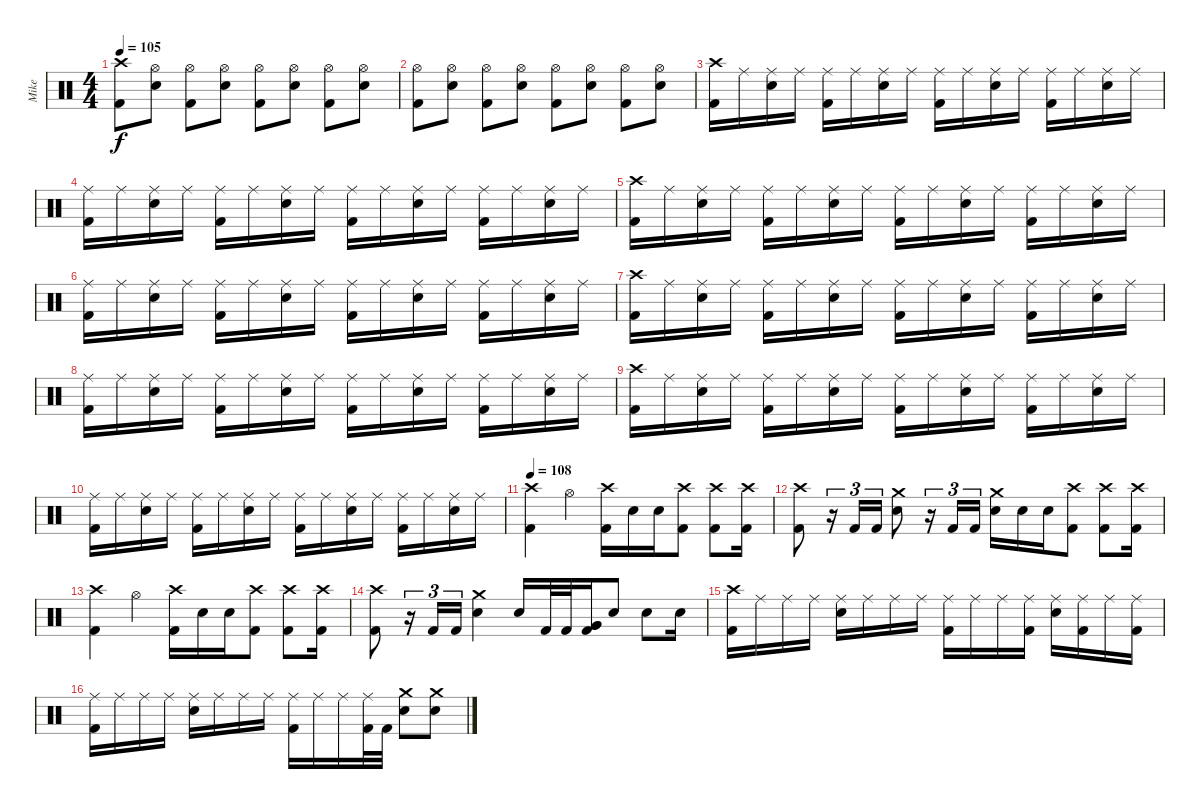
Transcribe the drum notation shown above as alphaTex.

\track ("Mike" "Mike") {instrument percussion}
\staff {score}
\articulation defaults
\ts (4 4)
\tempo 105
\clef neutral
\ks c
("Crash high (hit)" "Kick (hit) 2").8{dy f} ("Hi-Hat (open)" "Snare (hit) 2").8 ("Hi-Hat (open)" "Kick (hit) 2").8 ("Hi-Hat (open)" "Snare (hit) 2").8 ("Hi-Hat (open)" "Kick (hit) 2").8 ("Hi-Hat (open)" "Snare (hit) 2").8 ("Hi-Hat (open)" "Kick (hit) 2").8 ("Hi-Hat (open)" "Snare (hit) 2").8 |
("Hi-Hat (open)" "Kick (hit) 2").8 ("Hi-Hat (open)" "Snare (hit) 2").8 ("Hi-Hat (open)" "Kick (hit) 2").8 ("Hi-Hat (open)" "Snare (hit) 2").8 ("Hi-Hat (open)" "Kick (hit) 2").8 ("Hi-Hat (open)" "Snare (hit) 2").8 ("Hi-Hat (open)" "Kick (hit) 2").8 ("Hi-Hat (open)" "Snare (hit) 2").8 |
("Crash high (hit)" "Kick (hit) 2").16 "Ride (middle)".16 ("Ride (middle)" "Snare (hit) 2").16 "Ride (middle)".16 ("Ride (middle)" "Kick (hit) 2").16 "Ride (middle)".16 ("Ride (middle)" "Snare (hit) 2").16 "Ride (middle)".16 ("Ride (middle)" "Kick (hit) 2").16 "Ride (middle)".16 ("Ride (middle)" "Snare (hit) 2").16 "Ride (middle)".16 ("Ride (middle)" "Kick (hit) 2").16 "Ride (middle)".16 ("Ride (middle)" "Snare (hit) 2").16 "Ride (middle)".16 |
("Ride (middle)" "Kick (hit) 2").16 "Ride (middle)".16 ("Ride (middle)" "Snare (hit) 2").16 "Ride (middle)".16 ("Ride (middle)" "Kick (hit) 2").16 "Ride (middle)".16 ("Ride (middle)" "Snare (hit) 2").16 "Ride (middle)".16 ("Ride (middle)" "Kick (hit) 2").16 "Ride (middle)".16 ("Ride (middle)" "Snare (hit) 2").16 "Ride (middle)".16 ("Ride (middle)" "Kick (hit) 2").16 "Ride (middle)".16 ("Ride (middle)" "Snare (hit) 2").16 "Ride (middle)".16 |
("Crash high (hit)" "Kick (hit) 2").16 "Ride (middle)".16 ("Ride (middle)" "Snare (hit) 2").16 "Ride (middle)".16 ("Ride (middle)" "Kick (hit) 2").16 "Ride (middle)".16 ("Ride (middle)" "Snare (hit) 2").16 "Ride (middle)".16 ("Ride (middle)" "Kick (hit) 2").16 "Ride (middle)".16 ("Ride (middle)" "Snare (hit) 2").16 "Ride (middle)".16 ("Ride (middle)" "Kick (hit) 2").16 "Ride (middle)".16 ("Ride (middle)" "Snare (hit) 2").16 "Ride (middle)".16 |
("Ride (middle)" "Kick (hit) 2").16 "Ride (middle)".16 ("Ride (middle)" "Snare (hit) 2").16 "Ride (middle)".16 ("Ride (middle)" "Kick (hit) 2").16 "Ride (middle)".16 ("Ride (middle)" "Snare (hit) 2").16 "Ride (middle)".16 ("Ride (middle)" "Kick (hit) 2").16 "Ride (middle)".16 ("Ride (middle)" "Snare (hit) 2").16 "Ride (middle)".16 ("Ride (middle)" "Kick (hit) 2").16 "Ride (middle)".16 ("Ride (middle)" "Snare (hit) 2").16 "Ride (middle)".16 |
("Crash high (hit)" "Kick (hit) 2").16 "Ride (middle)".16 ("Ride (middle)" "Snare (hit) 2").16 "Ride (middle)".16 ("Ride (middle)" "Kick (hit) 2").16 "Ride (middle)".16 ("Ride (middle)" "Snare (hit) 2").16 "Ride (middle)".16 ("Ride (middle)" "Kick (hit) 2").16 "Ride (middle)".16 ("Ride (middle)" "Snare (hit) 2").16 "Ride (middle)".16 ("Ride (middle)" "Kick (hit) 2").16 "Ride (middle)".16 ("Ride (middle)" "Snare (hit) 2").16 "Ride (middle)".16 |
("Ride (middle)" "Kick (hit) 2").16 "Ride (middle)".16 ("Ride (middle)" "Snare (hit) 2").16 "Ride (middle)".16 ("Ride (middle)" "Kick (hit) 2").16 "Ride (middle)".16 ("Ride (middle)" "Snare (hit) 2").16 "Ride (middle)".16 ("Ride (middle)" "Kick (hit) 2").16 "Ride (middle)".16 ("Ride (middle)" "Snare (hit) 2").16 "Ride (middle)".16 ("Ride (middle)" "Kick (hit) 2").16 "Ride (middle)".16 ("Ride (middle)" "Snare (hit) 2").16 "Ride (middle)".16 |
("Crash high (hit)" "Kick (hit) 2").16 "Ride (middle)".16 ("Ride (middle)" "Snare (hit) 2").16 "Ride (middle)".16 ("Ride (middle)" "Kick (hit) 2").16 "Ride (middle)".16 ("Ride (middle)" "Snare (hit) 2").16 "Ride (middle)".16 ("Ride (middle)" "Kick (hit) 2").16 "Ride (middle)".16 ("Ride (middle)" "Snare (hit) 2").16 "Ride (middle)".16 ("Ride (middle)" "Kick (hit) 2").16 "Ride (middle)".16 ("Ride (middle)" "Snare (hit) 2").16 "Ride (middle)".16 |
("Ride (middle)" "Kick (hit) 2").16 "Ride (middle)".16 ("Ride (middle)" "Snare (hit) 2").16 "Ride (middle)".16 ("Ride (middle)" "Kick (hit) 2").16 "Ride (middle)".16 ("Ride (middle)" "Snare (hit) 2").16 "Ride (middle)".16 ("Ride (middle)" "Kick (hit) 2").16 "Ride (middle)".16 ("Ride (middle)" "Snare (hit) 2").16 "Ride (middle)".16 ("Ride (middle)" "Kick (hit) 2").16 "Ride (middle)".16 ("Ride (middle)" "Snare (hit) 2").16 "Ride (middle)".16 |
\tempo 108
("Crash high (hit)" "Kick (hit) 2").4 "Hi-Hat (open)".4 ("Crash high (hit)" "Kick (hit) 2").16 "Snare (hit) 2".16 "Snare (hit) 2".16 ("Crash high (hit)" "Kick (hit) 2").8 ("Crash high (hit)" "Kick (hit) 2").8 ("Crash high (hit)" "Kick (hit) 2").16 |
("Crash high (hit)" "Kick (hit) 2").8 r.16{tu (3 2)} "Kick (hit) 2".16{tu (3 2)} "Kick (hit) 2".16{tu (3 2)} ("Crash medium (hit)" "Snare (hit) 2").8 r.16{tu (3 2)} "Kick (hit) 2".16{tu (3 2)} "Kick (hit) 2".16{tu (3 2)} ("Crash medium (hit)" "Snare (hit) 2").16 "Snare (hit) 2".16 "Snare (hit) 2".16 ("Crash high (hit)" "Kick (hit) 2").8 ("Crash high (hit)" "Kick (hit) 2").8 ("Crash high (hit)" "Kick (hit) 2").16 |
("Crash high (hit)" "Kick (hit) 2").4 "Hi-Hat (open)".4 ("Crash high (hit)" "Kick (hit) 2").16 "Snare (hit) 2".16 "Snare (hit) 2".16 ("Crash high (hit)" "Kick (hit) 2").8 ("Crash high (hit)" "Kick (hit) 2").8 ("Crash high (hit)" "Kick (hit) 2").16 |
("Crash high (hit)" "Kick (hit) 2").8 r.16{tu (3 2)} "Kick (hit) 2".16{tu (3 2)} "Kick (hit) 2".16{tu (3 2)} ("Crash medium (hit)" "Snare (hit) 2").4 "Snare (hit) 2".16 "Kick (hit) 2".32 "Kick (hit) 2".32 ("Very Low Tom (hit)" "Very Low Tom (hit)" "Kick (hit) 2").16 "Snare (hit) 2".8 "Snare (hit) 2".8 "Snare (hit) 2".16 |
("Crash high (hit)" "Kick (hit) 2").16 "Ride (middle)".16 "Ride (middle)".16 "Ride (middle)".16 ("Ride (middle)" "Snare (hit) 2").16 "Ride (middle)".16 "Ride (middle)".16 "Ride (middle)".16 ("Ride (middle)" "Kick (hit) 2").16 "Ride (middle)".16 "Ride (middle)".16 ("Ride (middle)" "Kick (hit) 2").16 ("Ride (middle)" "Snare (hit) 2").16 ("Ride (middle)" "Kick (hit) 2").16 "Ride (middle)".16 ("Ride (middle)" "Kick (hit) 2").16 |
("Ride (middle)" "Kick (hit) 2").16 "Ride (middle)".16 "Ride (middle)".16 "Ride (middle)".16 ("Ride (middle)" "Snare (hit) 2").16 "Ride (middle)".16 "Ride (middle)".16 "Ride (middle)".16 ("Ride (middle)" "Kick (hit) 2").16 "Ride (middle)".16 "Ride (middle)".16 ("Ride (middle)" "Kick (hit) 2").32 "Kick (hit) 2".32 ("Crash medium (hit)" "Snare (hit) 2").8 ("Crash medium (hit)" "Snare (hit) 2").8
